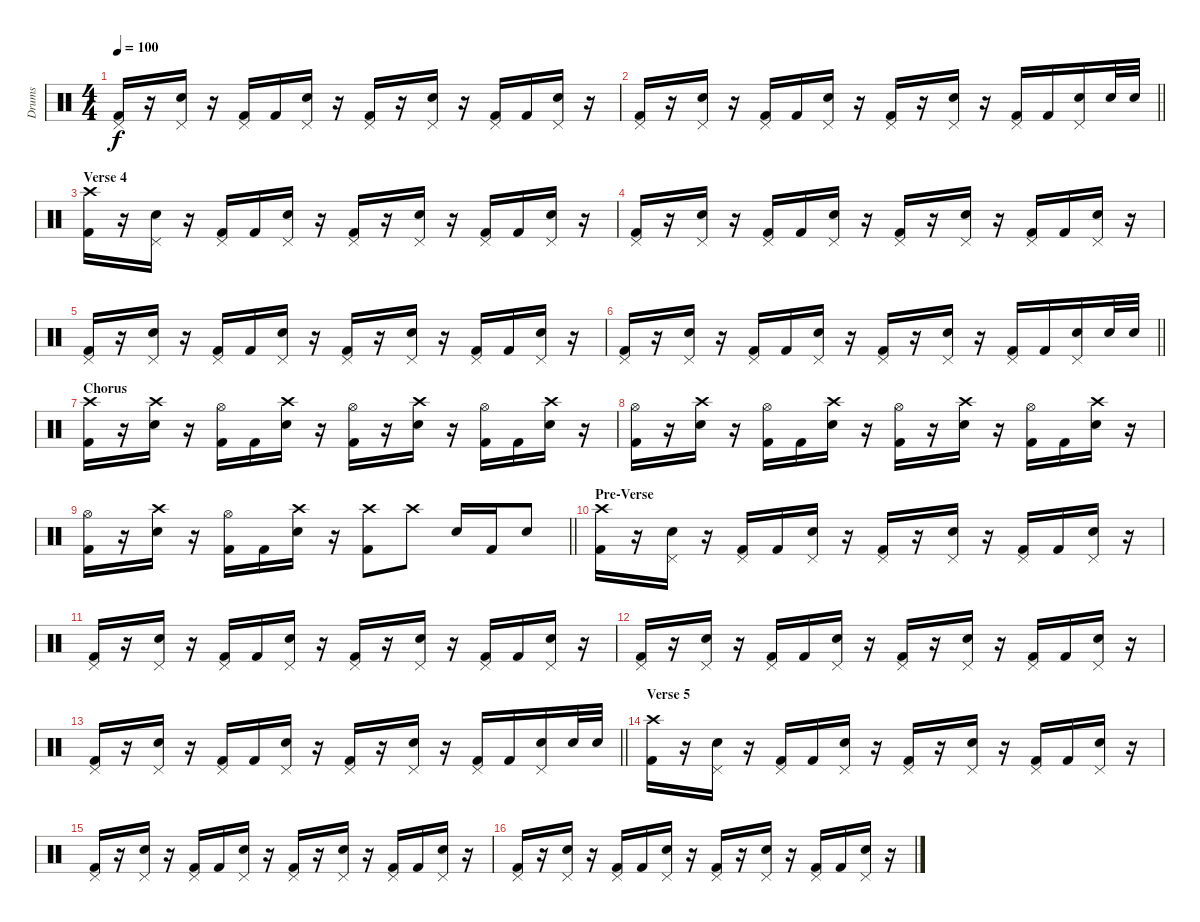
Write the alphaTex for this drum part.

\track ("Drums" "Drums") {instrument percussion}
\staff {score}
\articulation defaults
\ts (4 4)
\tempo 100
\clef neutral
\ks c
("Pedal Hi-Hat (hit)" "Kick (hit) 2").16{dy f} r.16 ("Pedal Hi-Hat (hit)" "Snare (hit) 2").16 r.16 ("Pedal Hi-Hat (hit)" "Kick (hit) 2").16 "Kick (hit) 2".16 ("Pedal Hi-Hat (hit)" "Snare (hit) 2").16 r.16 ("Pedal Hi-Hat (hit)" "Kick (hit) 2").16 r.16 ("Pedal Hi-Hat (hit)" "Snare (hit) 2").16 r.16 ("Pedal Hi-Hat (hit)" "Kick (hit) 2").16 "Kick (hit) 2".16 ("Pedal Hi-Hat (hit)" "Snare (hit) 2").16 r.16 |
\barLineRight lightlight
("Pedal Hi-Hat (hit)" "Kick (hit) 2").16 r.16 ("Pedal Hi-Hat (hit)" "Snare (hit) 2").16 r.16 ("Pedal Hi-Hat (hit)" "Kick (hit) 2").16 "Kick (hit) 2".16 ("Pedal Hi-Hat (hit)" "Snare (hit) 2").16 r.16 ("Pedal Hi-Hat (hit)" "Kick (hit) 2").16 r.16 ("Pedal Hi-Hat (hit)" "Snare (hit) 2").16 r.16 ("Pedal Hi-Hat (hit)" "Kick (hit) 2").16 "Kick (hit) 2".16 ("Pedal Hi-Hat (hit)" "Snare (hit) 2").16 "Snare (hit) 2".32 "Snare (hit) 2".32 |
\section ("" "Verse 4")
("Crash high (hit)" "Kick (hit) 2").16 r.16 ("Pedal Hi-Hat (hit)" "Snare (hit) 2").16 r.16 ("Pedal Hi-Hat (hit)" "Kick (hit) 2").16 "Kick (hit) 2".16 ("Pedal Hi-Hat (hit)" "Snare (hit) 2").16 r.16 ("Pedal Hi-Hat (hit)" "Kick (hit) 2").16 r.16 ("Pedal Hi-Hat (hit)" "Snare (hit) 2").16 r.16 ("Pedal Hi-Hat (hit)" "Kick (hit) 2").16 "Kick (hit) 2".16 ("Pedal Hi-Hat (hit)" "Snare (hit) 2").16 r.16 |
("Pedal Hi-Hat (hit)" "Kick (hit) 2").16 r.16 ("Pedal Hi-Hat (hit)" "Snare (hit) 2").16 r.16 ("Pedal Hi-Hat (hit)" "Kick (hit) 2").16 "Kick (hit) 2".16 ("Pedal Hi-Hat (hit)" "Snare (hit) 2").16 r.16 ("Pedal Hi-Hat (hit)" "Kick (hit) 2").16 r.16 ("Pedal Hi-Hat (hit)" "Snare (hit) 2").16 r.16 ("Pedal Hi-Hat (hit)" "Kick (hit) 2").16 "Kick (hit) 2".16 ("Pedal Hi-Hat (hit)" "Snare (hit) 2").16 r.16 |
("Pedal Hi-Hat (hit)" "Kick (hit) 2").16 r.16 ("Pedal Hi-Hat (hit)" "Snare (hit) 2").16 r.16 ("Pedal Hi-Hat (hit)" "Kick (hit) 2").16 "Kick (hit) 2".16 ("Pedal Hi-Hat (hit)" "Snare (hit) 2").16 r.16 ("Pedal Hi-Hat (hit)" "Kick (hit) 2").16 r.16 ("Pedal Hi-Hat (hit)" "Snare (hit) 2").16 r.16 ("Pedal Hi-Hat (hit)" "Kick (hit) 2").16 "Kick (hit) 2".16 ("Pedal Hi-Hat (hit)" "Snare (hit) 2").16 r.16 |
\barLineRight lightlight
("Pedal Hi-Hat (hit)" "Kick (hit) 2").16 r.16 ("Pedal Hi-Hat (hit)" "Snare (hit) 2").16 r.16 ("Pedal Hi-Hat (hit)" "Kick (hit) 2").16 "Kick (hit) 2".16 ("Pedal Hi-Hat (hit)" "Snare (hit) 2").16 r.16 ("Pedal Hi-Hat (hit)" "Kick (hit) 2").16 r.16 ("Pedal Hi-Hat (hit)" "Snare (hit) 2").16 r.16 ("Pedal Hi-Hat (hit)" "Kick (hit) 2").16 "Kick (hit) 2".16 ("Pedal Hi-Hat (hit)" "Snare (hit) 2").16 "Snare (hit) 2".32 "Snare (hit) 2".32 |
\section ("" "Chorus")
("Crash high (hit)" "Kick (hit) 2").16 r.16 ("Crash high (hit)" "Snare (hit) 2").16 r.16 ("Hi-Hat (open)" "Kick (hit) 2").16 "Kick (hit) 2".16 ("Crash high (hit)" "Snare (hit) 2").16 r.16 ("Hi-Hat (open)" "Kick (hit) 2").16 r.16 ("Crash high (hit)" "Snare (hit) 2").16 r.16 ("Hi-Hat (open)" "Kick (hit) 2").16 "Kick (hit) 2".16 ("Crash high (hit)" "Snare (hit) 2").16 r.16 |
("Hi-Hat (open)" "Kick (hit) 2").16 r.16 ("Crash high (hit)" "Snare (hit) 2").16 r.16 ("Hi-Hat (open)" "Kick (hit) 2").16 "Kick (hit) 2".16 ("Crash high (hit)" "Snare (hit) 2").16 r.16 ("Hi-Hat (open)" "Kick (hit) 2").16 r.16 ("Crash high (hit)" "Snare (hit) 2").16 r.16 ("Hi-Hat (open)" "Kick (hit) 2").16 "Kick (hit) 2".16 ("Crash high (hit)" "Snare (hit) 2").16 r.16 |
\barLineRight lightlight
("Hi-Hat (open)" "Kick (hit) 2").16 r.16 ("Crash high (hit)" "Snare (hit) 2").16 r.16 ("Hi-Hat (open)" "Kick (hit) 2").16 "Kick (hit) 2".16 ("Crash high (hit)" "Snare (hit) 2").16 r.16 ("Crash high (hit)" "Kick (hit) 2").8 "Crash high (hit)".8 "Snare (hit) 2".16 "Kick (hit) 2".16 "Snare (hit) 2".8 |
\section ("" "Pre-Verse")
("Crash high (hit)" "Kick (hit) 2").16 r.16 ("Pedal Hi-Hat (hit)" "Snare (hit) 2").16 r.16 ("Pedal Hi-Hat (hit)" "Kick (hit) 2").16 "Kick (hit) 2".16 ("Pedal Hi-Hat (hit)" "Snare (hit) 2").16 r.16 ("Pedal Hi-Hat (hit)" "Kick (hit) 2").16 r.16 ("Pedal Hi-Hat (hit)" "Snare (hit) 2").16 r.16 ("Pedal Hi-Hat (hit)" "Kick (hit) 2").16 "Kick (hit) 2".16 ("Pedal Hi-Hat (hit)" "Snare (hit) 2").16 r.16 |
("Pedal Hi-Hat (hit)" "Kick (hit) 2").16 r.16 ("Pedal Hi-Hat (hit)" "Snare (hit) 2").16 r.16 ("Pedal Hi-Hat (hit)" "Kick (hit) 2").16 "Kick (hit) 2".16 ("Pedal Hi-Hat (hit)" "Snare (hit) 2").16 r.16 ("Pedal Hi-Hat (hit)" "Kick (hit) 2").16 r.16 ("Pedal Hi-Hat (hit)" "Snare (hit) 2").16 r.16 ("Pedal Hi-Hat (hit)" "Kick (hit) 2").16 "Kick (hit) 2".16 ("Pedal Hi-Hat (hit)" "Snare (hit) 2").16 r.16 |
("Pedal Hi-Hat (hit)" "Kick (hit) 2").16 r.16 ("Pedal Hi-Hat (hit)" "Snare (hit) 2").16 r.16 ("Pedal Hi-Hat (hit)" "Kick (hit) 2").16 "Kick (hit) 2".16 ("Pedal Hi-Hat (hit)" "Snare (hit) 2").16 r.16 ("Pedal Hi-Hat (hit)" "Kick (hit) 2").16 r.16 ("Pedal Hi-Hat (hit)" "Snare (hit) 2").16 r.16 ("Pedal Hi-Hat (hit)" "Kick (hit) 2").16 "Kick (hit) 2".16 ("Pedal Hi-Hat (hit)" "Snare (hit) 2").16 r.16 |
\barLineRight lightlight
("Pedal Hi-Hat (hit)" "Kick (hit) 2").16 r.16 ("Pedal Hi-Hat (hit)" "Snare (hit) 2").16 r.16 ("Pedal Hi-Hat (hit)" "Kick (hit) 2").16 "Kick (hit) 2".16 ("Pedal Hi-Hat (hit)" "Snare (hit) 2").16 r.16 ("Pedal Hi-Hat (hit)" "Kick (hit) 2").16 r.16 ("Pedal Hi-Hat (hit)" "Snare (hit) 2").16 r.16 ("Pedal Hi-Hat (hit)" "Kick (hit) 2").16 "Kick (hit) 2".16 ("Pedal Hi-Hat (hit)" "Snare (hit) 2").16 "Snare (hit) 2".32 "Snare (hit) 2".32 |
\section ("" "Verse 5")
("Crash high (hit)" "Kick (hit) 2").16 r.16 ("Pedal Hi-Hat (hit)" "Snare (hit) 2").16 r.16 ("Pedal Hi-Hat (hit)" "Kick (hit) 2").16 "Kick (hit) 2".16 ("Pedal Hi-Hat (hit)" "Snare (hit) 2").16 r.16 ("Pedal Hi-Hat (hit)" "Kick (hit) 2").16 r.16 ("Pedal Hi-Hat (hit)" "Snare (hit) 2").16 r.16 ("Pedal Hi-Hat (hit)" "Kick (hit) 2").16 "Kick (hit) 2".16 ("Pedal Hi-Hat (hit)" "Snare (hit) 2").16 r.16 |
("Pedal Hi-Hat (hit)" "Kick (hit) 2").16 r.16 ("Pedal Hi-Hat (hit)" "Snare (hit) 2").16 r.16 ("Pedal Hi-Hat (hit)" "Kick (hit) 2").16 "Kick (hit) 2".16 ("Pedal Hi-Hat (hit)" "Snare (hit) 2").16 r.16 ("Pedal Hi-Hat (hit)" "Kick (hit) 2").16 r.16 ("Pedal Hi-Hat (hit)" "Snare (hit) 2").16 r.16 ("Pedal Hi-Hat (hit)" "Kick (hit) 2").16 "Kick (hit) 2".16 ("Pedal Hi-Hat (hit)" "Snare (hit) 2").16 r.16 |
("Pedal Hi-Hat (hit)" "Kick (hit) 2").16 r.16 ("Pedal Hi-Hat (hit)" "Snare (hit) 2").16 r.16 ("Pedal Hi-Hat (hit)" "Kick (hit) 2").16 "Kick (hit) 2".16 ("Pedal Hi-Hat (hit)" "Snare (hit) 2").16 r.16 ("Pedal Hi-Hat (hit)" "Kick (hit) 2").16 r.16 ("Pedal Hi-Hat (hit)" "Snare (hit) 2").16 r.16 ("Pedal Hi-Hat (hit)" "Kick (hit) 2").16 "Kick (hit) 2".16 ("Pedal Hi-Hat (hit)" "Snare (hit) 2").16 r.16
